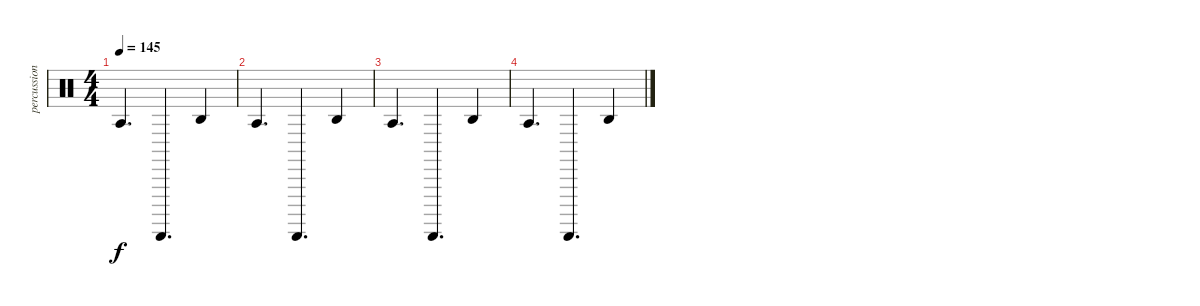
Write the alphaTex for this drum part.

\track ("percussion" "percussion") {instrument percussion}
\staff {score}
\articulation defaults
\ts (4 4)
\tempo 145
\clef neutral
\ks c "Agogo tow (hit)".4{d dy f} "Guiro (scrap-return)".4{d} "Agogo high (hit)".4
|
"Agogo tow (hit)".4{d} "Guiro (scrap-return)".4{d} "Agogo high (hit)".4 |
"Agogo tow (hit)".4{d} "Guiro (scrap-return)".4{d} "Agogo high (hit)".4 |
"Agogo tow (hit)".4{d} "Guiro (scrap-return)".4{d} "Agogo high (hit)".4
